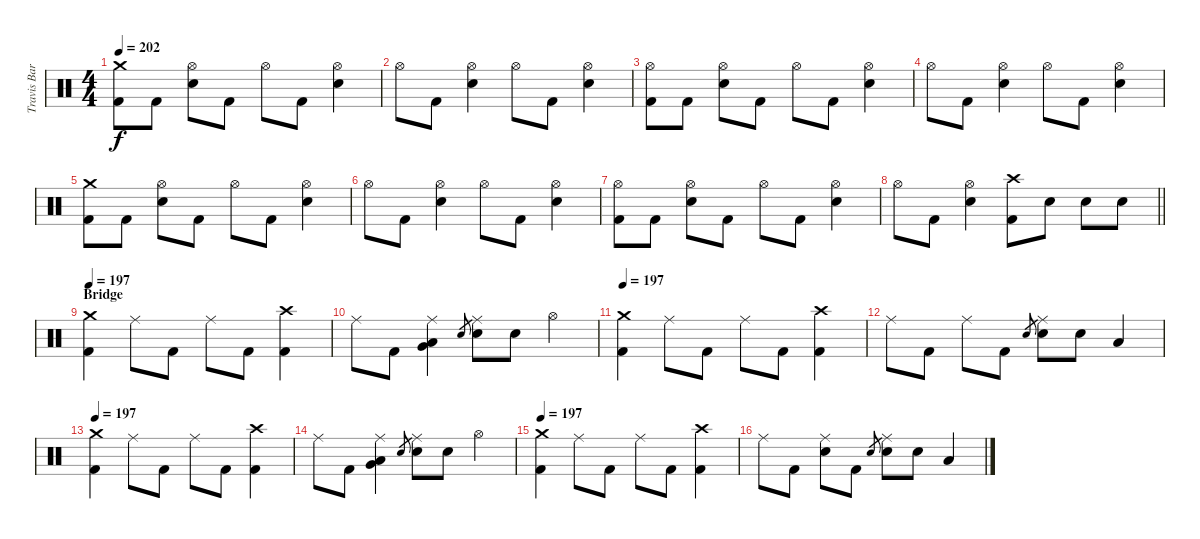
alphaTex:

\track ("Travis Barker - Drums" "Travis Bar") {instrument percussion}
\staff {score}
\articulation defaults
\ts (4 4)
\tempo 202
\clef neutral
\ks c
("Crash medium (hit)" "Kick (hit) 2").8{dy f} "Kick (hit) 2".8 ("Hi-Hat (open)" "Electric Snare (hit)").8 "Kick (hit) 2".8 "Hi-Hat (open)".8 "Kick (hit) 2".8 ("Hi-Hat (open)" "Electric Snare (hit)").4 |
"Hi-Hat (open)".8 "Kick (hit) 2".8 ("Hi-Hat (open)" "Electric Snare (hit)").4 "Hi-Hat (open)".8 "Kick (hit) 2".8 ("Hi-Hat (open)" "Electric Snare (hit)").4 |
("Hi-Hat (open)" "Kick (hit) 2").8 "Kick (hit) 2".8 ("Hi-Hat (open)" "Electric Snare (hit)").8 "Kick (hit) 2".8 "Hi-Hat (open)".8 "Kick (hit) 2".8 ("Hi-Hat (open)" "Electric Snare (hit)").4 |
"Hi-Hat (open)".8 "Kick (hit) 2".8 ("Hi-Hat (open)" "Electric Snare (hit)").4 "Hi-Hat (open)".8 "Kick (hit) 2".8 ("Hi-Hat (open)" "Electric Snare (hit)").4 |
("Crash medium (hit)" "Kick (hit) 2").8 "Kick (hit) 2".8 ("Hi-Hat (open)" "Electric Snare (hit)").8 "Kick (hit) 2".8 "Hi-Hat (open)".8 "Kick (hit) 2".8 ("Hi-Hat (open)" "Electric Snare (hit)").4 |
"Hi-Hat (open)".8 "Kick (hit) 2".8 ("Hi-Hat (open)" "Electric Snare (hit)").4 "Hi-Hat (open)".8 "Kick (hit) 2".8 ("Hi-Hat (open)" "Electric Snare (hit)").4 |
("Hi-Hat (open)" "Kick (hit) 2").8 "Kick (hit) 2".8 ("Hi-Hat (open)" "Electric Snare (hit)").8 "Kick (hit) 2".8 "Hi-Hat (open)".8 "Kick (hit) 2".8 ("Hi-Hat (open)" "Electric Snare (hit)").4 |
\barLineRight lightlight "Hi-Hat (open)".8 "Kick (hit) 2".8
("Hi-Hat (open)" "Electric Snare (hit)").4 ("Crash high (hit)" "Kick (hit) 2").8 "Electric Snare (hit)".8 "Electric Snare (hit)".8 "Electric Snare (hit)".8 |
\section ("" "Bridge")
\tempo 197
("Crash medium (hit)" "Kick (hit) 2").4 "Ride (middle)".8 "Kick (hit) 2".8 "Ride (middle)".8 "Kick (hit) 2".8 ("Crash high (hit)" "Kick (hit) 2").4 |
"Ride (middle)".8 "Kick (hit) 2".8 ("Ride (middle)" "Low Floor Tom (hit)" "Very Low Tom (hit)").4 "Electric Snare (hit)".8{gr} ("Ride (middle)" "Electric Snare (hit)").8 "Electric Snare (hit)".8 "Hi-Hat (open)".4 |
\tempo 197
("Crash medium (hit)" "Kick (hit) 2").4 "Ride (middle)".8 "Kick (hit) 2".8 "Ride (middle)".8 "Kick (hit) 2".8 ("Crash high (hit)" "Kick (hit) 2").4 |
"Ride (middle)".8 "Kick (hit) 2".8 "Ride (middle)".8 "Kick (hit) 2".8 "Electric Snare (hit)".8{gr} ("Ride (middle)" "Electric Snare (hit)").8 "Electric Snare (hit)".8 "Low Tom (hit)".4 |
\tempo 197
("Crash medium (hit)" "Kick (hit) 2").4 "Ride (middle)".8 "Kick (hit) 2".8 "Ride (middle)".8 "Kick (hit) 2".8 ("Crash high (hit)" "Kick (hit) 2").4 |
"Ride (middle)".8 "Kick (hit) 2".8 ("Ride (middle)" "Low Floor Tom (hit)" "Very Low Tom (hit)").4 "Electric Snare (hit)".8{gr} ("Ride (middle)" "Electric Snare (hit)").8 "Electric Snare (hit)".8 "Hi-Hat (open)".4 |
\tempo 197
("Crash medium (hit)" "Kick (hit) 2").4 "Ride (middle)".8 "Kick (hit) 2".8 "Ride (middle)".8 "Kick (hit) 2".8 ("Crash high (hit)" "Kick (hit) 2").4 |
"Ride (middle)".8 "Kick (hit) 2".8 ("Ride (middle)" "Electric Snare (hit)").8 "Kick (hit) 2".8 "Electric Snare (hit)".8{gr} ("Ride (middle)" "Electric Snare (hit)").8 "Electric Snare (hit)".8 "Low Tom (hit)".4
